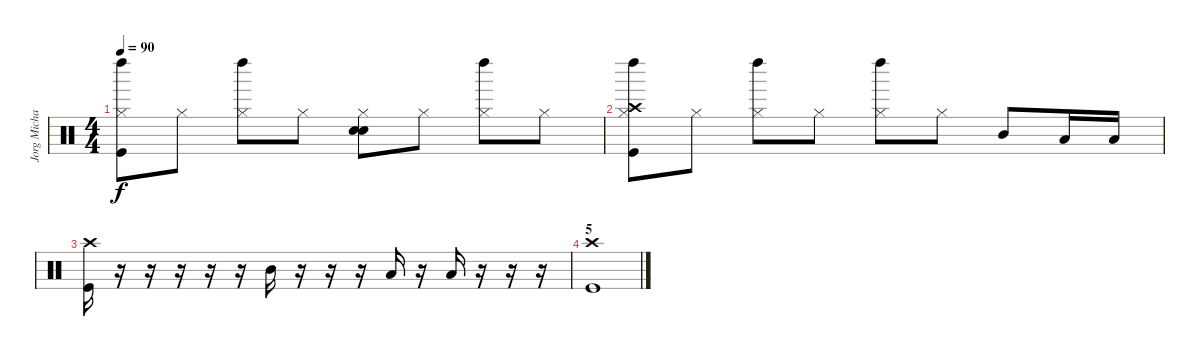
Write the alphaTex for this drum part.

\track ("Jorg Michael - Batteria" "Jorg Micha") {instrument percussion}
\staff {score}
\articulation defaults
\ts (4 4)
\tempo 90
\clef neutral
\ks c
("Kick (hit)" "Hi-Hat (closed)" "Left Maraca (hit)").8{dy f} "Hi-Hat (closed)".8 ("Hi-Hat (closed)" "Left Maraca (hit)").8 "Hi-Hat (closed)".8 ("Snare (hit) 2" "Hi-Hat (closed)" "Electric Snare (hit)").8 "Hi-Hat (closed)".8 ("Hi-Hat (closed)" "Left Maraca (hit)").8 "Hi-Hat (closed)".8 |
("Kick (hit)" "Hi-Hat (closed)" "Left Maraca (hit)" "Crash high (hit)").8 "Hi-Hat (closed)".8 ("Hi-Hat (closed)" "Left Maraca (hit)").8 "Hi-Hat (closed)".8 ("Hi-Hat (closed)" "Left Maraca (hit)").8 "Hi-Hat (closed)".8 "Mid Tom (hit)".8 "Low Tom (hit)".16 "Low Tom (hit)".16 |
("Kick (hit)" "Crash high (hit)").16 r.16 r.16 r.16 r.16 r.16 "Mid Tom (hit)".16 r.16 r.16 r.16 "Low Tom (hit)".16 r.16 "Low Tom (hit)".16 r.16 r.16 r.16 |
\section ("" "5")
("Kick (hit)" "Crash high (hit)").1
